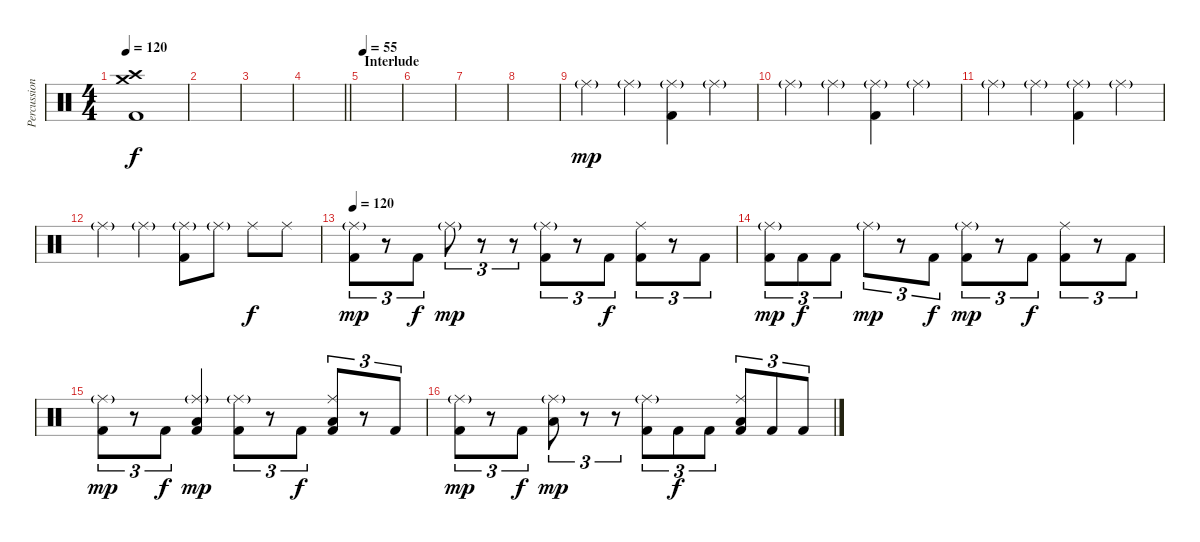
\track ("Percussion" "Percussion") {instrument percussion}
\staff {score}
\articulation defaults
\ts (4 4)
\tempo 120
\clef neutral
\ks c
("Crash medium (hit)" "Crash high (hit)" "Kick (hit) 2").1{dy f} |
|
|
\barLineRight lightlight
|
\section ("" "Interlude")
\tempo 55
|
|
|
|
"Ride (middle)"{g}.4{dy mp} "Ride (middle)"{g}.4 ("Ride (middle)"{g} "Kick (hit) 2").4 "Ride (middle)"{g}.4 |
"Ride (middle)"{g}.4 "Ride (middle)"{g}.4 ("Ride (middle)"{g} "Kick (hit) 2").4 "Ride (middle)"{g}.4 |
"Ride (middle)"{g}.4 "Ride (middle)"{g}.4 ("Ride (middle)"{g} "Kick (hit) 2").4 "Ride (middle)"{g}.4 |
"Ride (middle)"{g}.4 "Ride (middle)"{g}.4 ("Ride (middle)"{g} "Kick (hit) 2").8 "Ride (middle)"{g}.8 "Ride (middle)".8{dy f} "Ride (middle)".8 |
\tempo 120
("Ride (middle)"{g} "Kick (hit) 2").8{tu (3 2) dy mp} r.8{tu (3 2)} "Kick (hit) 2".8{tu (3 2) dy f} "Ride (middle)"{g}.8{tu (3 2) dy mp} r.8{tu (3 2)} r.8{tu (3 2)} ("Ride (middle)"{g} "Kick (hit) 2").8{tu (3 2)} r.8{tu (3 2)} "Kick (hit) 2".8{tu (3 2) dy f} ("Ride (middle)" "Kick (hit) 2").8{tu (3 2)} r.8{tu (3 2)} "Kick (hit) 2".8{tu (3 2)} |
("Ride (middle)"{g} "Kick (hit) 2").8{tu (3 2) dy mp} "Kick (hit) 2".8{tu (3 2) dy f} "Kick (hit) 2".8{tu (3 2)} "Ride (middle)"{g}.8{tu (3 2) dy mp} r.8{tu (3 2)} "Kick (hit) 2".8{tu (3 2) dy f} ("Ride (middle)"{g} "Kick (hit) 2").8{tu (3 2) dy mp} r.8{tu (3 2)} "Kick (hit) 2".8{tu (3 2) dy f} ("Ride (middle)" "Kick (hit) 2").8{tu (3 2)} r.8{tu (3 2)} "Kick (hit) 2".8{tu (3 2)} |
("Ride (middle)"{g} "Kick (hit) 2").8{tu (3 2) dy mp} r.8{tu (3 2)} "Kick (hit) 2".8{tu (3 2) dy f} ("Ride (middle)"{g} "Low Floor Tom (hit)" "Kick (hit) 2").4{dy mp} ("Ride (middle)"{g} "Kick (hit) 2").8{tu (3 2)} r.8{tu (3 2)} "Kick (hit) 2".8{tu (3 2) dy f} ("Ride (middle)" "Low Floor Tom (hit)" "Kick (hit) 2").8{tu (3 2)} r.8{tu (3 2)} "Kick (hit) 2".8{tu (3 2)} |
("Ride (middle)"{g} "Kick (hit) 2").8{tu (3 2) dy mp} r.8{tu (3 2)} "Kick (hit) 2".8{tu (3 2) dy f} ("Ride (middle)"{g} "Low Floor Tom (hit)").8{tu (3 2) dy mp} r.8{tu (3 2)} r.8{tu (3 2)} ("Ride (middle)"{g} "Kick (hit) 2").8{tu (3 2)} "Kick (hit) 2".8{tu (3 2) dy f} "Kick (hit) 2".8{tu (3 2)} ("Ride (middle)" "Low Floor Tom (hit)" "Kick (hit) 2").8{tu (3 2)} "Kick (hit) 2".8{tu (3 2)} "Kick (hit) 2".8{tu (3 2)}
